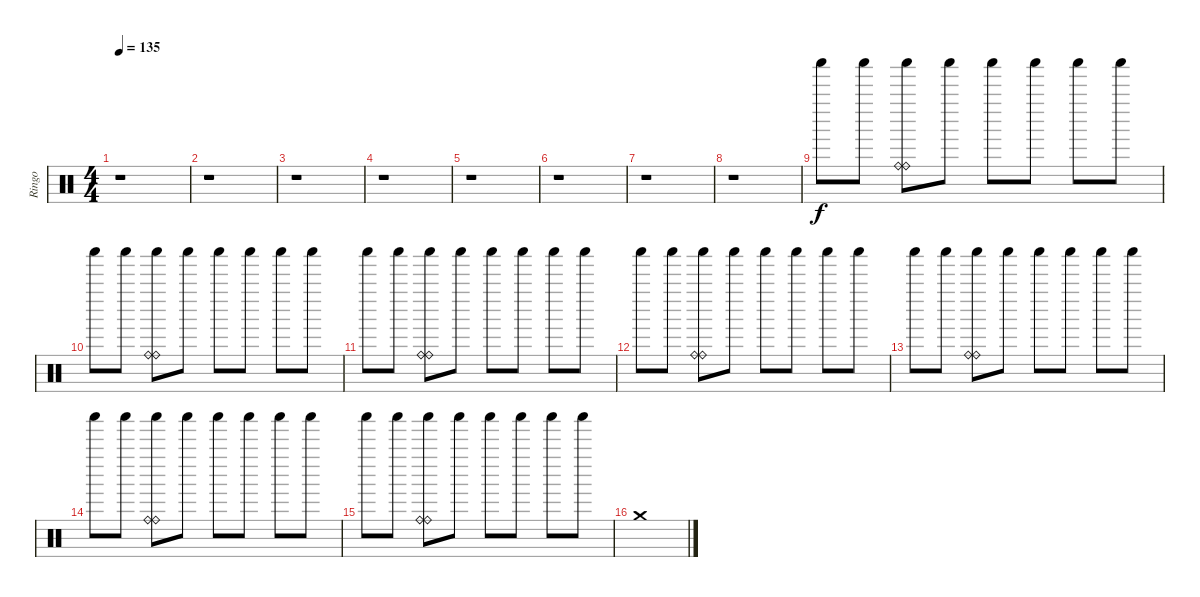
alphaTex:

\track ("Ringo" "Ringo") {instrument percussion}
\staff {score}
\articulation defaults
\ts (4 4)
\tempo 135
\clef neutral
\ks c
r.1{dy f} |
r.1 |
r.1 |
r.1 |
r.1 |
r.1 |
r.1 |
r.1 |
"Shaker (hit)".8{volume 7} "Shaker (hit)".8 ("Ride (bell)" "Shaker (hit)" "Ride (bell)").8{volume 16} "Shaker (hit)".8{volume 7} "Shaker (hit)".8 "Shaker (hit)".8 "Shaker (hit)".8 "Shaker (hit)".8 |
"Shaker (hit)".8{volume 7} "Shaker (hit)".8 ("Ride (bell)" "Shaker (hit)" "Ride (bell)").8{volume 16} "Shaker (hit)".8{volume 7} "Shaker (hit)".8 "Shaker (hit)".8 "Shaker (hit)".8 "Shaker (hit)".8 |
"Shaker (hit)".8{volume 7} "Shaker (hit)".8 ("Ride (bell)" "Shaker (hit)" "Ride (bell)").8{volume 16} "Shaker (hit)".8{volume 7} "Shaker (hit)".8 "Shaker (hit)".8 "Shaker (hit)".8 "Shaker (hit)".8 |
"Shaker (hit)".8{volume 7} "Shaker (hit)".8 ("Ride (bell)" "Shaker (hit)" "Ride (bell)").8{volume 16} "Shaker (hit)".8{volume 7} "Shaker (hit)".8 "Shaker (hit)".8 "Shaker (hit)".8 "Shaker (hit)".8 |
"Shaker (hit)".8{volume 7} "Shaker (hit)".8 ("Ride (bell)" "Shaker (hit)" "Ride (bell)").8{volume 16} "Shaker (hit)".8{volume 7} "Shaker (hit)".8 "Shaker (hit)".8 "Shaker (hit)".8 "Shaker (hit)".8 |
"Shaker (hit)".8{volume 7} "Shaker (hit)".8 ("Ride (bell)" "Shaker (hit)" "Ride (bell)").8{volume 16} "Shaker (hit)".8{volume 7} "Shaker (hit)".8 "Shaker (hit)".8 "Shaker (hit)".8 "Shaker (hit)".8 |
"Shaker (hit)".8{volume 7} "Shaker (hit)".8 ("Ride (bell)" "Shaker (hit)" "Ride (bell)").8{volume 16} "Shaker (hit)".8{volume 7} "Shaker (hit)".8 "Shaker (hit)".8 "Shaker (hit)".8 "Shaker (hit)".8 |
"Crash medium (hit)".1
